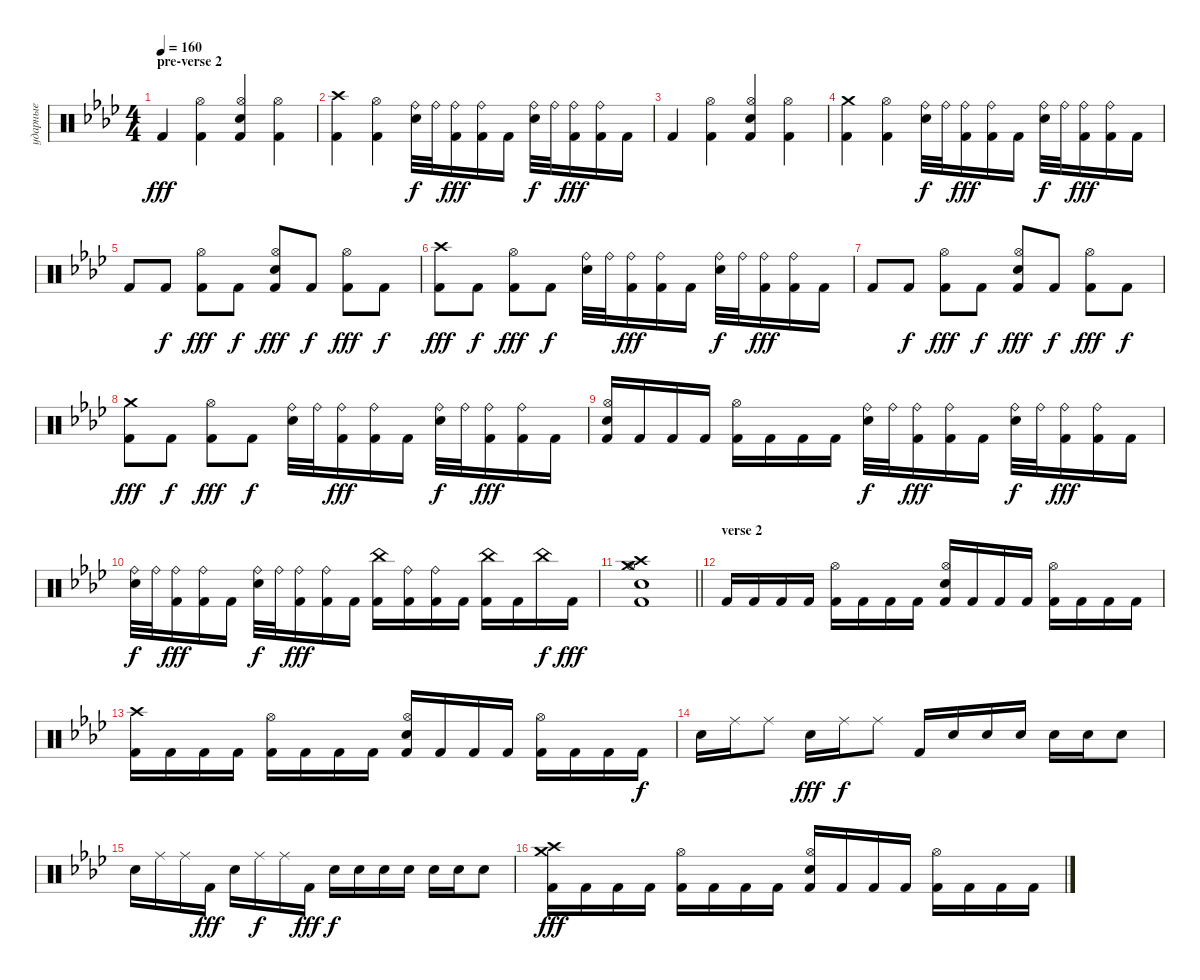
\track ("ударные" "ударные") {instrument percussion}
\staff {score}
\articulation defaults
\ts (4 4)
\section ("" "pre-verse 2")
\tempo 160
\clef neutral
\ks fminor "Kick (hit) 2".4{dy fff}
("Hi-Hat (open)" "Kick (hit) 2").4 ("Electric Snare (hit)" "Hi-Hat (open)" "Kick (hit) 2").4 ("Hi-Hat (open)" "Kick (hit) 2").4 |
("Crash high (hit)" "Kick (hit) 2").4 ("Hi-Hat (open)" "Kick (hit) 2").4 ("Electric Snare (hit)" "Ride (bell)").32{dy f} "Ride (bell)".32 ("Kick (hit) 2" "Ride (bell)").16{dy fff} ("Kick (hit) 2" "Ride (bell)").16 "Kick (hit) 2".16 ("Electric Snare (hit)" "Ride (bell)").32{dy f} "Ride (bell)".32 ("Kick (hit) 2" "Ride (bell)").16{dy fff} ("Kick (hit) 2" "Ride (bell)").16 "Kick (hit) 2".16 |
"Kick (hit) 2".4 ("Hi-Hat (open)" "Kick (hit) 2").4 ("Electric Snare (hit)" "Hi-Hat (open)" "Kick (hit) 2").4 ("Hi-Hat (open)" "Kick (hit) 2").4 |
("Crash medium (hit)" "Kick (hit) 2").4 ("Hi-Hat (open)" "Kick (hit) 2").4 ("Electric Snare (hit)" "Ride (bell)").32{dy f} "Ride (bell)".32 ("Kick (hit) 2" "Ride (bell)").16{dy fff} ("Kick (hit) 2" "Ride (bell)").16 "Kick (hit) 2".16 ("Electric Snare (hit)" "Ride (bell)").32{dy f} "Ride (bell)".32 ("Kick (hit) 2" "Ride (bell)").16{dy fff} ("Kick (hit) 2" "Ride (bell)").16 "Kick (hit) 2".16 |
"Kick (hit) 2".8 "Kick (hit) 2".8{dy f} ("Hi-Hat (open)" "Kick (hit) 2").8{dy fff} "Kick (hit) 2".8{dy f} ("Electric Snare (hit)" "Hi-Hat (open)" "Kick (hit) 2").8{dy fff} "Kick (hit) 2".8{dy f} ("Hi-Hat (open)" "Kick (hit) 2").8{dy fff} "Kick (hit) 2".8{dy f} |
("Crash high (hit)" "Kick (hit) 2").8{dy fff} "Kick (hit) 2".8{dy f} ("Hi-Hat (open)" "Kick (hit) 2").8{dy fff} "Kick (hit) 2".8{dy f} ("Electric Snare (hit)" "Ride (bell)").32 "Ride (bell)".32 ("Kick (hit) 2" "Ride (bell)").16{dy fff} ("Kick (hit) 2" "Ride (bell)").16 "Kick (hit) 2".16 ("Electric Snare (hit)" "Ride (bell)").32{dy f} "Ride (bell)".32 ("Kick (hit) 2" "Ride (bell)").16{dy fff} ("Kick (hit) 2" "Ride (bell)").16 "Kick (hit) 2".16 |
"Kick (hit) 2".8 "Kick (hit) 2".8{dy f} ("Hi-Hat (open)" "Kick (hit) 2").8{dy fff} "Kick (hit) 2".8{dy f} ("Electric Snare (hit)" "Hi-Hat (open)" "Kick (hit) 2").8{dy fff} "Kick (hit) 2".8{dy f} ("Hi-Hat (open)" "Kick (hit) 2").8{dy fff} "Kick (hit) 2".8{dy f} |
("Crash medium (hit)" "Kick (hit) 2").8{dy fff} "Kick (hit) 2".8{dy f} ("Hi-Hat (open)" "Kick (hit) 2").8{dy fff} "Kick (hit) 2".8{dy f} ("Electric Snare (hit)" "Ride (bell)").32 "Ride (bell)".32 ("Kick (hit) 2" "Ride (bell)").16{dy fff} ("Kick (hit) 2" "Ride (bell)").16 "Kick (hit) 2".16 ("Electric Snare (hit)" "Ride (bell)").32{dy f} "Ride (bell)".32 ("Kick (hit) 2" "Ride (bell)").16{dy fff} ("Kick (hit) 2" "Ride (bell)").16 "Kick (hit) 2".16 |
("Electric Snare (hit)" "Hi-Hat (open)" "Kick (hit) 2").16 "Kick (hit) 2".16 "Kick (hit) 2".16 "Kick (hit) 2".16 ("Hi-Hat (open)" "Kick (hit) 2").16 "Kick (hit) 2".16 "Kick (hit) 2".16 "Kick (hit) 2".16 ("Electric Snare (hit)" "Ride (bell)").32{dy f} "Ride (bell)".32 ("Kick (hit) 2" "Ride (bell)").16{dy fff} ("Kick (hit) 2" "Ride (bell)").16 "Kick (hit) 2".16 ("Electric Snare (hit)" "Ride (bell)").32{dy f} "Ride (bell)".32 ("Kick (hit) 2" "Ride (bell)").16{dy fff} ("Kick (hit) 2" "Ride (bell)").16 "Kick (hit) 2".16 |
("Electric Snare (hit)" "Ride (bell)").32{dy f} "Ride (bell)".32 ("Kick (hit) 2" "Ride (bell)").16{dy fff} ("Kick (hit) 2" "Ride (bell)").16 "Kick (hit) 2".16 ("Electric Snare (hit)" "Ride (bell)").32{dy f} "Ride (bell)".32 ("Kick (hit) 2" "Ride (bell)").16{dy fff} ("Kick (hit) 2" "Ride (bell)").16 "Kick (hit) 2".16 ("China (hit)" "Kick (hit) 2").16 ("Kick (hit) 2" "Ride (bell)").16 ("Kick (hit) 2" "Ride (bell)").16 "Kick (hit) 2".16 ("China (hit)" "Kick (hit) 2").16 "Kick (hit) 2".16 "China (hit)".16{dy f} "Kick (hit) 2".16{dy fff} |
\barLineRight lightlight
("Crash high (hit)" "Crash medium (hit)" "Electric Snare (hit)" "Hi-Hat (open)" "Kick (hit) 2").1 |
\section ("" "verse 2")
"Kick (hit) 2".16 "Kick (hit) 2".16 "Kick (hit) 2".16 "Kick (hit) 2".16 ("Hi-Hat (open)" "Kick (hit) 2").16 "Kick (hit) 2".16 "Kick (hit) 2".16 "Kick (hit) 2".16 ("Electric Snare (hit)" "Hi-Hat (open)" "Kick (hit) 2").16 "Kick (hit) 2".16 "Kick (hit) 2".16 "Kick (hit) 2".16 ("Hi-Hat (open)" "Kick (hit) 2").16 "Kick (hit) 2".16 "Kick (hit) 2".16 "Kick (hit) 2".16 |
("Crash high (hit)" "Kick (hit) 2").16 "Kick (hit) 2".16 "Kick (hit) 2".16 "Kick (hit) 2".16 ("Hi-Hat (open)" "Kick (hit) 2").16 "Kick (hit) 2".16 "Kick (hit) 2".16 "Kick (hit) 2".16 ("Electric Snare (hit)" "Hi-Hat (open)" "Kick (hit) 2").16 "Kick (hit) 2".16 "Kick (hit) 2".16 "Kick (hit) 2".16 ("Hi-Hat (open)" "Kick (hit) 2").16 "Kick (hit) 2".16 "Kick (hit) 2".16 "Kick (hit) 2".16{dy f} |
"Electric Snare (hit)".16 "Ride (middle)".16 "Ride (middle)".8 "Electric Snare (hit)".16{dy fff} "Ride (middle)".16{dy f} "Ride (middle)".8 "Kick (hit) 2".16 "Electric Snare (hit)".16 "Electric Snare (hit)".16 "Electric Snare (hit)".16 "Electric Snare (hit)".16 "Electric Snare (hit)".16 "Electric Snare (hit)".8 |
"Electric Snare (hit)".16 "Ride (middle)".16 "Ride (middle)".16 "Kick (hit) 2".16{dy fff} "Electric Snare (hit)".16 "Ride (middle)".16{dy f} "Ride (middle)".16 "Kick (hit) 2".16{dy fff} "Electric Snare (hit)".16{dy f} "Electric Snare (hit)".16 "Electric Snare (hit)".16 "Electric Snare (hit)".16 "Electric Snare (hit)".16 "Electric Snare (hit)".16 "Electric Snare (hit)".8 |
("Kick (hit) 2" "Crash medium (hit)" "Crash high (hit)").16{dy fff} "Kick (hit) 2".16 "Kick (hit) 2".16 "Kick (hit) 2".16 ("Hi-Hat (open)" "Kick (hit) 2").16 "Kick (hit) 2".16 "Kick (hit) 2".16 "Kick (hit) 2".16 ("Electric Snare (hit)" "Hi-Hat (open)" "Kick (hit) 2").16 "Kick (hit) 2".16 "Kick (hit) 2".16 "Kick (hit) 2".16 ("Hi-Hat (open)" "Kick (hit) 2").16 "Kick (hit) 2".16 "Kick (hit) 2".16 "Kick (hit) 2".16
